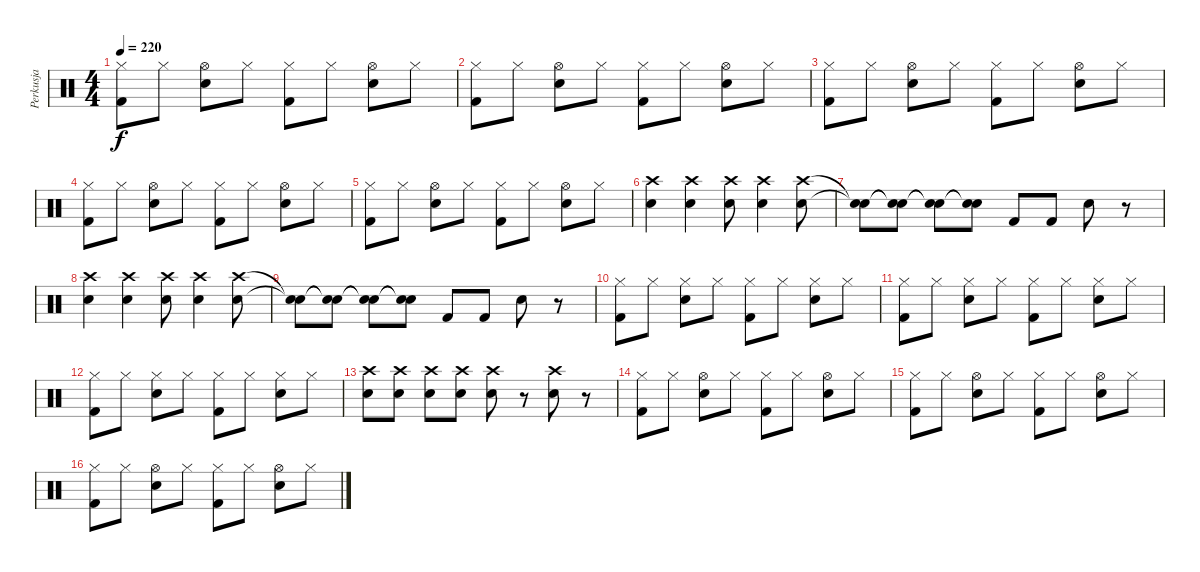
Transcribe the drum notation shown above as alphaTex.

\track ("Perkusja" "Perkusja") {instrument percussion}
\staff {score}
\articulation defaults
\ts (4 4)
\tempo 220
\clef neutral
\ks c
("Hi-Hat (closed)" "Kick (hit) 2").8{dy f} "Hi-Hat (closed)".8 ("Hi-Hat (open)" "Snare (hit) 2").8 "Hi-Hat (closed)".8 ("Hi-Hat (closed)" "Kick (hit) 2").8 "Hi-Hat (closed)".8 ("Hi-Hat (open)" "Snare (hit) 2").8 "Hi-Hat (closed)".8 |
("Hi-Hat (closed)" "Kick (hit) 2").8 "Hi-Hat (closed)".8 ("Hi-Hat (open)" "Snare (hit) 2").8 "Hi-Hat (closed)".8 ("Hi-Hat (closed)" "Kick (hit) 2").8 "Hi-Hat (closed)".8 ("Hi-Hat (open)" "Snare (hit) 2").8 "Hi-Hat (closed)".8 |
("Hi-Hat (closed)" "Kick (hit) 2").8 "Hi-Hat (closed)".8 ("Hi-Hat (open)" "Snare (hit) 2").8 "Hi-Hat (closed)".8 ("Hi-Hat (closed)" "Kick (hit) 2").8 "Hi-Hat (closed)".8 ("Hi-Hat (open)" "Snare (hit) 2").8 "Hi-Hat (closed)".8 |
("Hi-Hat (closed)" "Kick (hit) 2").8 "Hi-Hat (closed)".8 ("Hi-Hat (open)" "Snare (hit) 2").8 "Hi-Hat (closed)".8 ("Hi-Hat (closed)" "Kick (hit) 2").8 "Hi-Hat (closed)".8 ("Hi-Hat (open)" "Snare (hit) 2").8 "Hi-Hat (closed)".8 |
("Hi-Hat (closed)" "Kick (hit) 2").8 "Hi-Hat (closed)".8 ("Hi-Hat (open)" "Snare (hit) 2").8 "Hi-Hat (closed)".8 ("Hi-Hat (closed)" "Kick (hit) 2").8 "Hi-Hat (closed)".8 ("Hi-Hat (open)" "Snare (hit) 2").8 "Hi-Hat (closed)".8 |
("Crash high (hit)" "Snare (hit) 2").4 ("Crash high (hit)" "Snare (hit) 2").4 ("Crash high (hit)" "Snare (hit) 2").8 ("Crash high (hit)" "Snare (hit) 2").4 ("Crash high (hit)" "Snare (hit) 2").8 |
("Snare (hit)"{t} "Snare (hit)"{t}).8 ("Snare (hit)"{t} "Snare (hit)"{t}).8 ("Snare (hit)"{t} "Snare (hit)"{t}).8 ("Snare (hit)"{t} "Snare (hit)"{t}).8 "Kick (hit) 2".8 "Kick (hit) 2".8 "Snare (hit) 2".8 r.8 |
("Crash high (hit)" "Snare (hit) 2").4 ("Crash high (hit)" "Snare (hit) 2").4 ("Crash high (hit)" "Snare (hit) 2").8 ("Crash high (hit)" "Snare (hit) 2").4 ("Crash high (hit)" "Snare (hit) 2").8 |
("Snare (hit)"{t} "Snare (hit)"{t}).8 ("Snare (hit)"{t} "Snare (hit)"{t}).8 ("Snare (hit)"{t} "Snare (hit)"{t}).8 ("Snare (hit)"{t} "Snare (hit)"{t}).8 "Kick (hit) 2".8 "Kick (hit) 2".8 "Snare (hit) 2".8 r.8 |
("Hi-Hat (closed)" "Kick (hit) 2").8 "Hi-Hat (closed)".8 ("Hi-Hat (closed)" "Snare (hit) 2").8 "Hi-Hat (closed)".8 ("Hi-Hat (closed)" "Kick (hit) 2").8 "Hi-Hat (closed)".8 ("Hi-Hat (closed)" "Snare (hit) 2").8 "Hi-Hat (closed)".8 |
("Hi-Hat (closed)" "Kick (hit) 2").8 "Hi-Hat (closed)".8 ("Hi-Hat (closed)" "Snare (hit) 2").8 "Hi-Hat (closed)".8 ("Hi-Hat (closed)" "Kick (hit) 2").8 "Hi-Hat (closed)".8 ("Hi-Hat (closed)" "Snare (hit) 2").8 "Hi-Hat (closed)".8 |
("Hi-Hat (closed)" "Kick (hit) 2").8 "Hi-Hat (closed)".8 ("Hi-Hat (closed)" "Snare (hit) 2").8 "Hi-Hat (closed)".8 ("Hi-Hat (closed)" "Kick (hit) 2").8 "Hi-Hat (closed)".8 ("Hi-Hat (closed)" "Snare (hit) 2").8 "Hi-Hat (closed)".8 |
("Crash high (hit)" "Snare (hit) 2").8 ("Crash high (hit)" "Snare (hit) 2").8 ("Crash high (hit)" "Snare (hit) 2").8 ("Crash high (hit)" "Snare (hit) 2").8 ("Crash high (hit)" "Snare (hit) 2").8 r.8 ("Crash high (hit)" "Snare (hit) 2").8 r.8 |
("Hi-Hat (closed)" "Kick (hit) 2").8 "Hi-Hat (closed)".8 ("Hi-Hat (open)" "Snare (hit) 2").8 "Hi-Hat (closed)".8 ("Hi-Hat (closed)" "Kick (hit) 2").8 "Hi-Hat (closed)".8 ("Hi-Hat (open)" "Snare (hit) 2").8 "Hi-Hat (closed)".8 |
("Hi-Hat (closed)" "Kick (hit) 2").8 "Hi-Hat (closed)".8 ("Hi-Hat (open)" "Snare (hit) 2").8 "Hi-Hat (closed)".8 ("Hi-Hat (closed)" "Kick (hit) 2").8 "Hi-Hat (closed)".8 ("Hi-Hat (open)" "Snare (hit) 2").8 "Hi-Hat (closed)".8 |
("Hi-Hat (closed)" "Kick (hit) 2").8 "Hi-Hat (closed)".8 ("Hi-Hat (open)" "Snare (hit) 2").8 "Hi-Hat (closed)".8 ("Hi-Hat (closed)" "Kick (hit) 2").8 "Hi-Hat (closed)".8 ("Hi-Hat (open)" "Snare (hit) 2").8 "Hi-Hat (closed)".8
